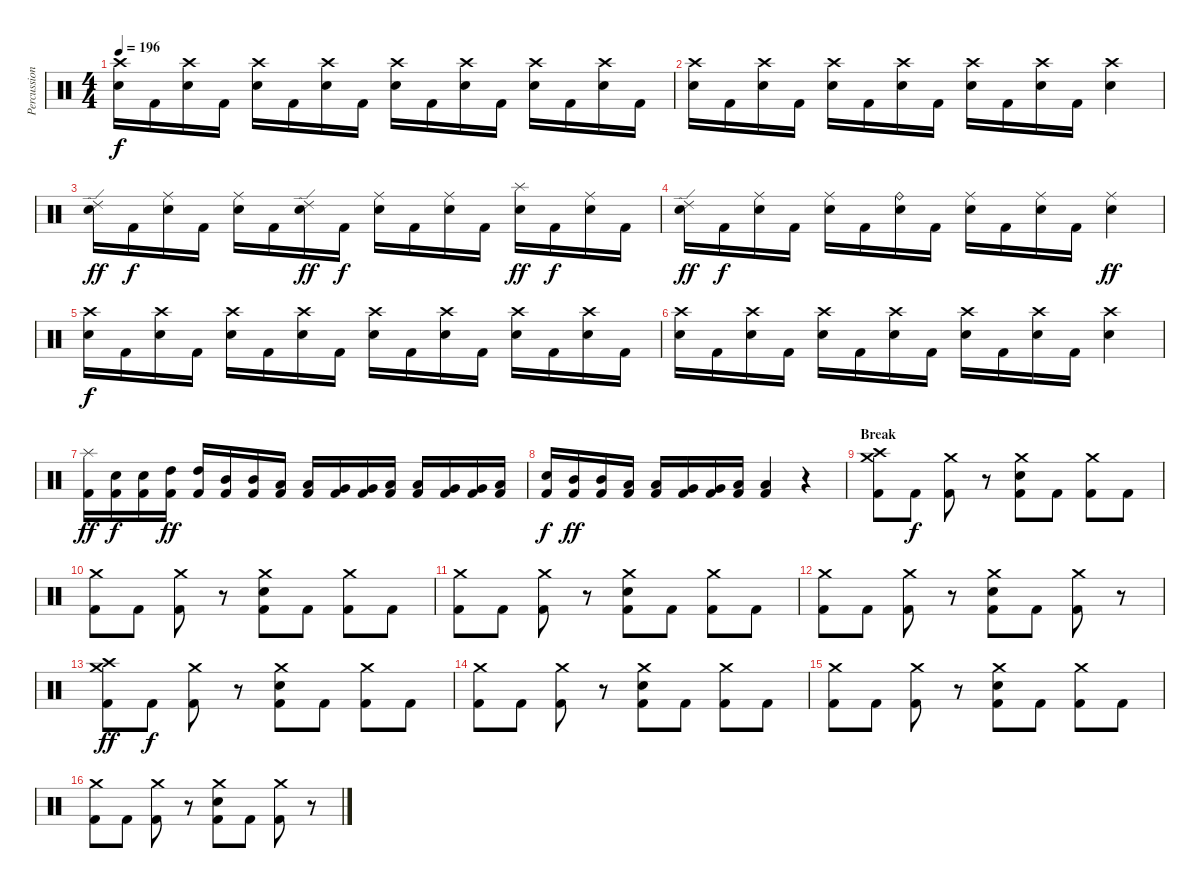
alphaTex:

\track ("Percussions" "Percussion") {instrument percussion}
\staff {score}
\articulation defaults
\ts (4 4)
\tempo 196
\clef neutral
\ks c
("Crash high (hit)" "Electric Snare (hit)").16{dy f} "Kick (hit) 2".16 ("Crash high (hit)" "Electric Snare (hit)").16 "Kick (hit) 2".16 ("Crash high (hit)" "Electric Snare (hit)").16 "Kick (hit) 2".16 ("Crash high (hit)" "Electric Snare (hit)").16 "Kick (hit) 2".16 ("Crash high (hit)" "Electric Snare (hit)").16 "Kick (hit) 2".16 ("Crash high (hit)" "Electric Snare (hit)").16 "Kick (hit) 2".16 ("Crash high (hit)" "Electric Snare (hit)").16 "Kick (hit) 2".16 ("Crash high (hit)" "Electric Snare (hit)").16 "Kick (hit) 2".16 |
("Crash high (hit)" "Electric Snare (hit)").16 "Kick (hit) 2".16 ("Crash high (hit)" "Electric Snare (hit)").16 "Kick (hit) 2".16 ("Crash high (hit)" "Electric Snare (hit)").16 "Kick (hit) 2".16 ("Crash high (hit)" "Electric Snare (hit)").16 "Kick (hit) 2".16 ("Crash high (hit)" "Electric Snare (hit)").16 "Kick (hit) 2".16 ("Crash high (hit)" "Electric Snare (hit)").16 "Kick (hit) 2".16 ("Crash high (hit)" "Electric Snare (hit)").4 |
("Ride (edge) 2" "Electric Snare (hit)").16{dy ff} "Kick (hit) 2".16{dy f} ("Ride (middle)" "Electric Snare (hit)").16 "Kick (hit) 2".16 ("Ride (middle)" "Electric Snare (hit)").16 "Kick (hit) 2".16 ("Ride (edge) 2" "Electric Snare (hit)").16{dy ff} "Kick (hit) 2".16{dy f} ("Ride (middle)" "Electric Snare (hit)").16 "Kick (hit) 2".16 ("Ride (middle)" "Electric Snare (hit)").16 "Kick (hit) 2".16 ("Splash (hit)" "Electric Snare (hit)").16{dy ff} "Kick (hit) 2".16{dy f} ("Ride (middle)" "Electric Snare (hit)").16 "Kick (hit) 2".16 |
("Ride (edge) 2" "Electric Snare (hit)").16{dy ff} "Kick (hit) 2".16{dy f} ("Ride (middle)" "Electric Snare (hit)").16 "Kick (hit) 2".16 ("Ride (middle)" "Electric Snare (hit)").16 "Kick (hit) 2".16 ("Ride (bell)" "Electric Snare (hit)").16 "Kick (hit) 2".16 ("Ride (middle)" "Electric Snare (hit)").16 "Kick (hit) 2".16 ("Ride (middle)" "Electric Snare (hit)").16 "Kick (hit) 2".16 ("Ride (middle)" "Electric Snare (hit)").4{dy ff} |
("Crash high (hit)" "Electric Snare (hit)").16{dy f} "Kick (hit) 2".16 ("Crash high (hit)" "Electric Snare (hit)").16 "Kick (hit) 2".16 ("Crash high (hit)" "Electric Snare (hit)").16 "Kick (hit) 2".16 ("Crash high (hit)" "Electric Snare (hit)").16 "Kick (hit) 2".16 ("Crash high (hit)" "Electric Snare (hit)").16 "Kick (hit) 2".16 ("Crash high (hit)" "Electric Snare (hit)").16 "Kick (hit) 2".16 ("Crash high (hit)" "Electric Snare (hit)").16 "Kick (hit) 2".16 ("Crash high (hit)" "Electric Snare (hit)").16 "Kick (hit) 2".16 |
("Crash high (hit)" "Electric Snare (hit)").16 "Kick (hit) 2".16 ("Crash high (hit)" "Electric Snare (hit)").16 "Kick (hit) 2".16 ("Crash high (hit)" "Electric Snare (hit)").16 "Kick (hit) 2".16 ("Crash high (hit)" "Electric Snare (hit)").16 "Kick (hit) 2".16 ("Crash high (hit)" "Electric Snare (hit)").16 "Kick (hit) 2".16 ("Crash high (hit)" "Electric Snare (hit)").16 "Kick (hit) 2".16 ("Crash high (hit)" "Electric Snare (hit)").4 |
("Splash (hit)" "Kick (hit) 2").16{dy ff} ("Electric Snare (hit)" "Kick (hit) 2").16{dy f} ("Electric Snare (hit)" "Kick (hit) 2").16 ("High Tom (hit)" "Kick (hit) 2").16{dy ff} ("High Tom (hit)" "Kick (hit) 2").16 ("Mid Tom (hit)" "Kick (hit) 2").16 ("Mid Tom (hit)" "Kick (hit) 2").16 ("Low Tom (hit)" "Kick (hit) 2").16 ("Low Tom (hit)" "Kick (hit) 2").16 ("Very Low Tom (hit)" "Kick (hit) 2").16 ("Very Low Tom (hit)" "Kick (hit) 2").16 ("Low Tom (hit)" "Kick (hit) 2").16 ("Low Tom (hit)" "Kick (hit) 2").16 ("Very Low Tom (hit)" "Kick (hit) 2").16 ("Very Low Tom (hit)" "Kick (hit) 2").16 ("Low Floor Tom (hit)" "Kick (hit) 2").16 |
("Electric Snare (hit)" "Kick (hit) 2").16{dy f} ("Mid Tom (hit)" "Kick (hit) 2").16{dy ff} ("Mid Tom (hit)" "Kick (hit) 2").16 ("Low Tom (hit)" "Kick (hit) 2").16 ("Low Tom (hit)" "Kick (hit) 2").16 ("Very Low Tom (hit)" "Kick (hit) 2").16 ("Very Low Tom (hit)" "Kick (hit) 2").16 ("Low Floor Tom (hit)" "Kick (hit) 2").16 ("Low Tom (hit)" "Kick (hit) 2").4 r.4 |
\section ("" "Break")
("Crash high (hit)" "Crash medium (hit)" "Kick (hit) 2").8 "Kick (hit) 2".8{dy f} ("Crash medium (hit)" "Kick (hit) 2").8 r.8 ("Crash medium (hit)" "Electric Snare (hit)" "Kick (hit) 2").8 "Kick (hit) 2".8 ("Crash medium (hit)" "Kick (hit) 2").8 "Kick (hit) 2".8 |
("Crash medium (hit)" "Kick (hit) 2").8 "Kick (hit) 2".8 ("Crash medium (hit)" "Kick (hit) 2").8 r.8 ("Crash medium (hit)" "Electric Snare (hit)" "Kick (hit) 2").8 "Kick (hit) 2".8 ("Crash medium (hit)" "Kick (hit) 2").8 "Kick (hit) 2".8 |
("Crash medium (hit)" "Kick (hit) 2").8 "Kick (hit) 2".8 ("Crash medium (hit)" "Kick (hit) 2").8 r.8 ("Crash medium (hit)" "Electric Snare (hit)" "Kick (hit) 2").8 "Kick (hit) 2".8 ("Crash medium (hit)" "Kick (hit) 2").8 "Kick (hit) 2".8 |
("Crash medium (hit)" "Kick (hit) 2").8 "Kick (hit) 2".8 ("Crash medium (hit)" "Kick (hit) 2").8 r.8 ("Crash medium (hit)" "Electric Snare (hit)" "Kick (hit) 2").8 "Kick (hit) 2".8 ("Crash medium (hit)" "Kick (hit) 2").8 r.8 |
("Crash high (hit)" "Crash medium (hit)" "Kick (hit) 2").8{dy ff} "Kick (hit) 2".8{dy f} ("Crash medium (hit)" "Kick (hit) 2").8 r.8 ("Crash medium (hit)" "Electric Snare (hit)" "Kick (hit) 2").8 "Kick (hit) 2".8 ("Crash medium (hit)" "Kick (hit) 2").8 "Kick (hit) 2".8 |
("Crash medium (hit)" "Kick (hit) 2").8 "Kick (hit) 2".8 ("Crash medium (hit)" "Kick (hit) 2").8 r.8 ("Crash medium (hit)" "Electric Snare (hit)" "Kick (hit) 2").8 "Kick (hit) 2".8 ("Crash medium (hit)" "Kick (hit) 2").8 "Kick (hit) 2".8 |
("Crash medium (hit)" "Kick (hit) 2").8 "Kick (hit) 2".8 ("Crash medium (hit)" "Kick (hit) 2").8 r.8 ("Crash medium (hit)" "Electric Snare (hit)" "Kick (hit) 2").8 "Kick (hit) 2".8 ("Crash medium (hit)" "Kick (hit) 2").8 "Kick (hit) 2".8 |
("Crash medium (hit)" "Kick (hit) 2").8 "Kick (hit) 2".8 ("Crash medium (hit)" "Kick (hit) 2").8 r.8 ("Crash medium (hit)" "Electric Snare (hit)" "Kick (hit) 2").8 "Kick (hit) 2".8 ("Crash medium (hit)" "Kick (hit) 2").8 r.8
